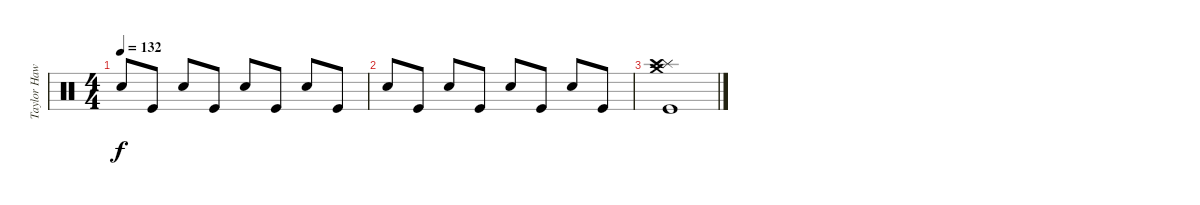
\track ("Taylor Hawkins (Drums)" "Taylor Haw") {instrument percussion}
\staff {score}
\articulation defaults
\ts (4 4)
\tempo 132
\clef neutral
\ks c "Snare (hit) 2".8{dy f} "Kick (hit)".8 "Snare (hit) 2".8 "Kick (hit)".8 "Snare (hit) 2".8 "Kick (hit)".8 "Snare (hit) 2".8 "Kick (hit)".8
|
"Snare (hit) 2".8 "Kick (hit)".8 "Snare (hit) 2".8 "Kick (hit)".8 "Snare (hit) 2".8 "Kick (hit)".8 "Snare (hit) 2".8 "Kick (hit)".8 |
("Kick (hit)" "Splash (hit)" "Crash medium (hit)" "Crash high (hit)").1
